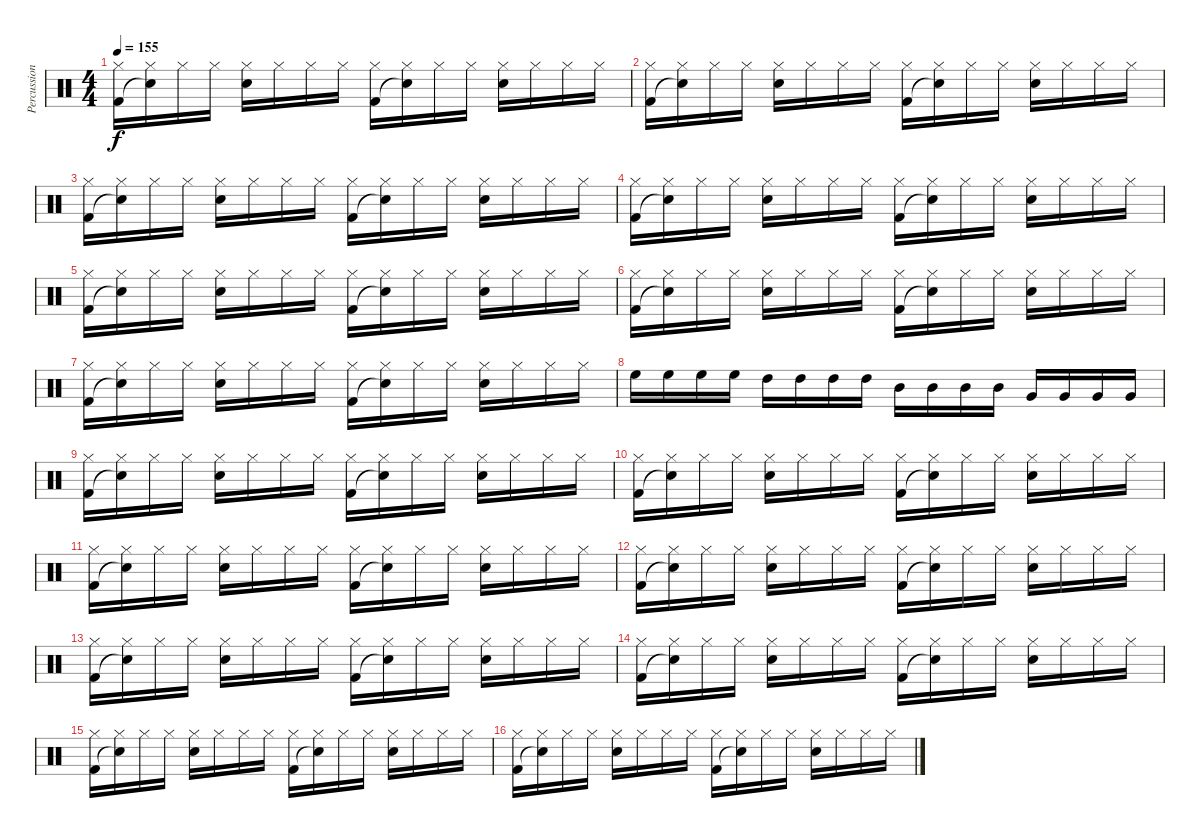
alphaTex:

\track ("Percussion" "Percussion") {instrument percussion}
\staff {score}
\articulation defaults
\ts (4 4)
\tempo 155
\clef neutral
\ks c
("Hi-Hat (closed)" "Kick (hit) 2").16{dy f} ("Hi-Hat (closed)" "Snare (hit)"{t}).16 "Hi-Hat (closed)".16 "Hi-Hat (closed)".16 ("Hi-Hat (closed)" "Snare (hit) 2").16 "Hi-Hat (closed)".16 "Hi-Hat (closed)".16 "Hi-Hat (closed)".16 ("Hi-Hat (closed)" "Kick (hit) 2").16 ("Hi-Hat (closed)" "Snare (hit)"{t}).16 "Hi-Hat (closed)".16 "Hi-Hat (closed)".16 ("Hi-Hat (closed)" "Snare (hit) 2").16 "Hi-Hat (closed)".16 "Hi-Hat (closed)".16 "Hi-Hat (closed)".16 |
("Hi-Hat (closed)" "Kick (hit) 2").16 ("Hi-Hat (closed)" "Snare (hit)"{t}).16 "Hi-Hat (closed)".16 "Hi-Hat (closed)".16 ("Hi-Hat (closed)" "Snare (hit) 2").16 "Hi-Hat (closed)".16 "Hi-Hat (closed)".16 "Hi-Hat (closed)".16 ("Hi-Hat (closed)" "Kick (hit) 2").16 ("Hi-Hat (closed)" "Snare (hit)"{t}).16 "Hi-Hat (closed)".16 "Hi-Hat (closed)".16 ("Hi-Hat (closed)" "Snare (hit) 2").16 "Hi-Hat (closed)".16 "Hi-Hat (closed)".16 "Hi-Hat (closed)".16 |
("Hi-Hat (closed)" "Kick (hit) 2").16 ("Hi-Hat (closed)" "Snare (hit)"{t}).16 "Hi-Hat (closed)".16 "Hi-Hat (closed)".16 ("Hi-Hat (closed)" "Snare (hit) 2").16 "Hi-Hat (closed)".16 "Hi-Hat (closed)".16 "Hi-Hat (closed)".16 ("Hi-Hat (closed)" "Kick (hit) 2").16 ("Hi-Hat (closed)" "Snare (hit)"{t}).16 "Hi-Hat (closed)".16 "Hi-Hat (closed)".16 ("Hi-Hat (closed)" "Snare (hit) 2").16 "Hi-Hat (closed)".16 "Hi-Hat (closed)".16 "Hi-Hat (closed)".16 |
("Hi-Hat (closed)" "Kick (hit) 2").16 ("Hi-Hat (closed)" "Snare (hit)"{t}).16 "Hi-Hat (closed)".16 "Hi-Hat (closed)".16 ("Hi-Hat (closed)" "Snare (hit) 2").16 "Hi-Hat (closed)".16 "Hi-Hat (closed)".16 "Hi-Hat (closed)".16 ("Hi-Hat (closed)" "Kick (hit) 2").16 ("Hi-Hat (closed)" "Snare (hit)"{t}).16 "Hi-Hat (closed)".16 "Hi-Hat (closed)".16 ("Hi-Hat (closed)" "Snare (hit) 2").16 "Hi-Hat (closed)".16 "Hi-Hat (closed)".16 "Hi-Hat (closed)".16 |
("Hi-Hat (closed)" "Kick (hit) 2").16 ("Hi-Hat (closed)" "Snare (hit)"{t}).16 "Hi-Hat (closed)".16 "Hi-Hat (closed)".16 ("Hi-Hat (closed)" "Snare (hit) 2").16 "Hi-Hat (closed)".16 "Hi-Hat (closed)".16 "Hi-Hat (closed)".16 ("Hi-Hat (closed)" "Kick (hit) 2").16 ("Hi-Hat (closed)" "Snare (hit)"{t}).16 "Hi-Hat (closed)".16 "Hi-Hat (closed)".16 ("Hi-Hat (closed)" "Snare (hit) 2").16 "Hi-Hat (closed)".16 "Hi-Hat (closed)".16 "Hi-Hat (closed)".16 |
("Hi-Hat (closed)" "Kick (hit) 2").16 ("Hi-Hat (closed)" "Snare (hit)"{t}).16 "Hi-Hat (closed)".16 "Hi-Hat (closed)".16 ("Hi-Hat (closed)" "Snare (hit) 2").16 "Hi-Hat (closed)".16 "Hi-Hat (closed)".16 "Hi-Hat (closed)".16 ("Hi-Hat (closed)" "Kick (hit) 2").16 ("Hi-Hat (closed)" "Snare (hit)"{t}).16 "Hi-Hat (closed)".16 "Hi-Hat (closed)".16 ("Hi-Hat (closed)" "Snare (hit) 2").16 "Hi-Hat (closed)".16 "Hi-Hat (closed)".16 "Hi-Hat (closed)".16 |
("Hi-Hat (closed)" "Kick (hit) 2").16 ("Hi-Hat (closed)" "Snare (hit)"{t}).16 "Hi-Hat (closed)".16 "Hi-Hat (closed)".16 ("Hi-Hat (closed)" "Snare (hit) 2").16 "Hi-Hat (closed)".16 "Hi-Hat (closed)".16 "Hi-Hat (closed)".16 ("Hi-Hat (closed)" "Kick (hit) 2").16 ("Hi-Hat (closed)" "Snare (hit)"{t}).16 "Hi-Hat (closed)".16 "Hi-Hat (closed)".16 ("Hi-Hat (closed)" "Snare (hit) 2").16 "Hi-Hat (closed)".16 "Hi-Hat (closed)".16 "Hi-Hat (closed)".16 |
"High Floor Tom (hit)".16 "High Floor Tom (hit)".16 "High Floor Tom (hit)".16 "High Floor Tom (hit)".16 "High Tom (hit)".16 "High Tom (hit)".16 "High Tom (hit)".16 "High Tom (hit)".16 "Mid Tom (hit)".16 "Mid Tom (hit)".16 "Mid Tom (hit)".16 "Mid Tom (hit)".16 "Very Low Tom (hit)".16 "Very Low Tom (hit)".16 "Very Low Tom (hit)".16 "Very Low Tom (hit)".16 |
("Hi-Hat (closed)" "Kick (hit) 2").16 ("Hi-Hat (closed)" "Snare (hit)"{t}).16 "Hi-Hat (closed)".16 "Hi-Hat (closed)".16 ("Hi-Hat (closed)" "Snare (hit) 2").16 "Hi-Hat (closed)".16 "Hi-Hat (closed)".16 "Hi-Hat (closed)".16 ("Hi-Hat (closed)" "Kick (hit) 2").16 ("Hi-Hat (closed)" "Snare (hit)"{t}).16 "Hi-Hat (closed)".16 "Hi-Hat (closed)".16 ("Hi-Hat (closed)" "Snare (hit) 2").16 "Hi-Hat (closed)".16 "Hi-Hat (closed)".16 "Hi-Hat (closed)".16 |
("Hi-Hat (closed)" "Kick (hit) 2").16 ("Hi-Hat (closed)" "Snare (hit)"{t}).16 "Hi-Hat (closed)".16 "Hi-Hat (closed)".16 ("Hi-Hat (closed)" "Snare (hit) 2").16 "Hi-Hat (closed)".16 "Hi-Hat (closed)".16 "Hi-Hat (closed)".16 ("Hi-Hat (closed)" "Kick (hit) 2").16 ("Hi-Hat (closed)" "Snare (hit)"{t}).16 "Hi-Hat (closed)".16 "Hi-Hat (closed)".16 ("Hi-Hat (closed)" "Snare (hit) 2").16 "Hi-Hat (closed)".16 "Hi-Hat (closed)".16 "Hi-Hat (closed)".16 |
("Hi-Hat (closed)" "Kick (hit) 2").16 ("Hi-Hat (closed)" "Snare (hit)"{t}).16 "Hi-Hat (closed)".16 "Hi-Hat (closed)".16 ("Hi-Hat (closed)" "Snare (hit) 2").16 "Hi-Hat (closed)".16 "Hi-Hat (closed)".16 "Hi-Hat (closed)".16 ("Hi-Hat (closed)" "Kick (hit) 2").16 ("Hi-Hat (closed)" "Snare (hit)"{t}).16 "Hi-Hat (closed)".16 "Hi-Hat (closed)".16 ("Hi-Hat (closed)" "Snare (hit) 2").16 "Hi-Hat (closed)".16 "Hi-Hat (closed)".16 "Hi-Hat (closed)".16 |
("Hi-Hat (closed)" "Kick (hit) 2").16 ("Hi-Hat (closed)" "Snare (hit)"{t}).16 "Hi-Hat (closed)".16 "Hi-Hat (closed)".16 ("Hi-Hat (closed)" "Snare (hit) 2").16 "Hi-Hat (closed)".16 "Hi-Hat (closed)".16 "Hi-Hat (closed)".16 ("Hi-Hat (closed)" "Kick (hit) 2").16 ("Hi-Hat (closed)" "Snare (hit)"{t}).16 "Hi-Hat (closed)".16 "Hi-Hat (closed)".16 ("Hi-Hat (closed)" "Snare (hit) 2").16 "Hi-Hat (closed)".16 "Hi-Hat (closed)".16 "Hi-Hat (closed)".16 |
("Hi-Hat (closed)" "Kick (hit) 2").16 ("Hi-Hat (closed)" "Snare (hit)"{t}).16 "Hi-Hat (closed)".16 "Hi-Hat (closed)".16 ("Hi-Hat (closed)" "Snare (hit) 2").16 "Hi-Hat (closed)".16 "Hi-Hat (closed)".16 "Hi-Hat (closed)".16 ("Hi-Hat (closed)" "Kick (hit) 2").16 ("Hi-Hat (closed)" "Snare (hit)"{t}).16 "Hi-Hat (closed)".16 "Hi-Hat (closed)".16 ("Hi-Hat (closed)" "Snare (hit) 2").16 "Hi-Hat (closed)".16 "Hi-Hat (closed)".16 "Hi-Hat (closed)".16 |
("Hi-Hat (closed)" "Kick (hit) 2").16 ("Hi-Hat (closed)" "Snare (hit)"{t}).16 "Hi-Hat (closed)".16 "Hi-Hat (closed)".16 ("Hi-Hat (closed)" "Snare (hit) 2").16 "Hi-Hat (closed)".16 "Hi-Hat (closed)".16 "Hi-Hat (closed)".16 ("Hi-Hat (closed)" "Kick (hit) 2").16 ("Hi-Hat (closed)" "Snare (hit)"{t}).16 "Hi-Hat (closed)".16 "Hi-Hat (closed)".16 ("Hi-Hat (closed)" "Snare (hit) 2").16 "Hi-Hat (closed)".16 "Hi-Hat (closed)".16 "Hi-Hat (closed)".16 |
("Hi-Hat (closed)" "Kick (hit) 2").16 ("Hi-Hat (closed)" "Snare (hit)"{t}).16 "Hi-Hat (closed)".16 "Hi-Hat (closed)".16 ("Hi-Hat (closed)" "Snare (hit) 2").16 "Hi-Hat (closed)".16 "Hi-Hat (closed)".16 "Hi-Hat (closed)".16 ("Hi-Hat (closed)" "Kick (hit) 2").16 ("Hi-Hat (closed)" "Snare (hit)"{t}).16 "Hi-Hat (closed)".16 "Hi-Hat (closed)".16 ("Hi-Hat (closed)" "Snare (hit) 2").16 "Hi-Hat (closed)".16 "Hi-Hat (closed)".16 "Hi-Hat (closed)".16 |
("Hi-Hat (closed)" "Kick (hit) 2").16 ("Hi-Hat (closed)" "Snare (hit)"{t}).16 "Hi-Hat (closed)".16 "Hi-Hat (closed)".16 ("Hi-Hat (closed)" "Snare (hit) 2").16 "Hi-Hat (closed)".16 "Hi-Hat (closed)".16 "Hi-Hat (closed)".16 ("Hi-Hat (closed)" "Kick (hit) 2").16 ("Hi-Hat (closed)" "Snare (hit)"{t}).16 "Hi-Hat (closed)".16 "Hi-Hat (closed)".16 ("Hi-Hat (closed)" "Snare (hit) 2").16 "Hi-Hat (closed)".16 "Hi-Hat (closed)".16 "Hi-Hat (closed)".16
